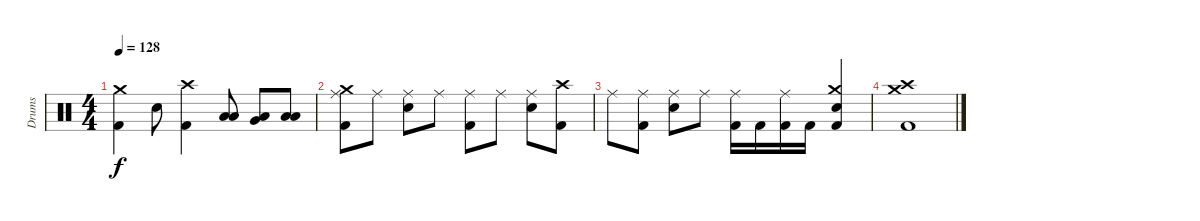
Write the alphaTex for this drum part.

\track ("Drums" "Drums") {instrument percussion}
\staff {score}
\articulation defaults
\ts (4 4)
\tempo 128
\clef neutral
\ks c
("Kick (hit) 2" "Crash medium (hit)").4{dy f} "Electric Snare (hit)".8 ("Kick (hit) 2" "Crash high (hit)").4 ("Low Floor Tom (hit)" "Low Tom (hit)").8 ("Low Floor Tom (hit)" "Very Low Tom (hit)").8 ("Low Floor Tom (hit)" "Low Floor Tom (hit)").8 |
("Kick (hit) 2" "Ride (middle)" "Crash medium (hit)").8 "Ride (middle)".8 ("Electric Snare (hit)" "Ride (middle)").8 "Ride (middle)".8 ("Kick (hit) 2" "Ride (middle)").8 "Ride (middle)".8 ("Electric Snare (hit)" "Ride (middle)").8 ("Kick (hit) 2" "Crash high (hit)").8 |
"Ride (middle)".8 ("Kick (hit) 2" "Ride (middle)").8 ("Electric Snare (hit)" "Ride (middle)").8 "Ride (middle)".8 ("Kick (hit) 2" "Ride (middle)").16 "Kick (hit) 2".16 ("Kick (hit) 2" "Ride (middle)").16 "Kick (hit) 2".16 ("Kick (hit) 2" "Electric Snare (hit)" "Crash medium (hit)").4 |
("Kick (hit) 2" "Crash medium (hit)" "Crash high (hit)").1
